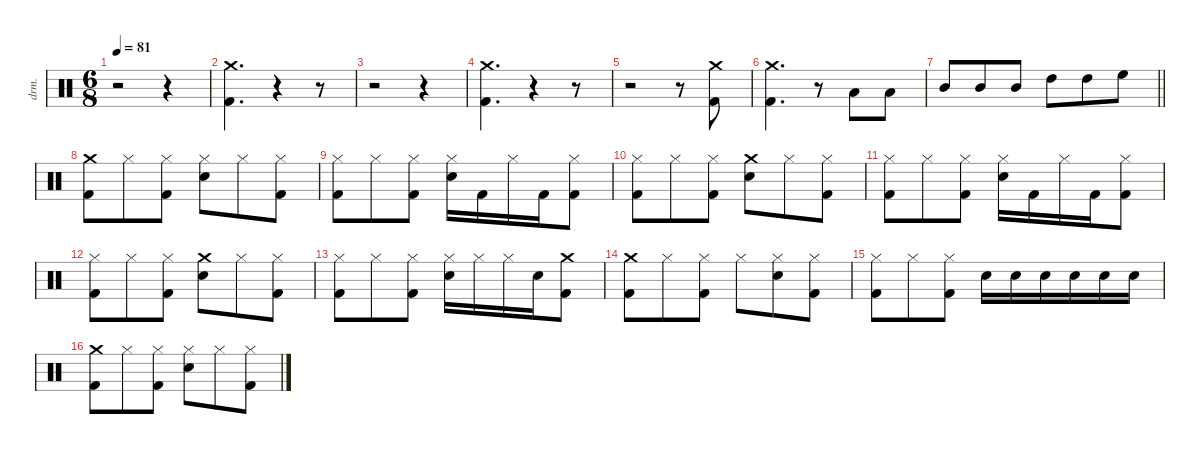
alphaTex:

\defaultSystemsLayout 4
\hideDynamics
\bracketExtendMode nobrackets
\otherSystemsTrackNameOrientation horizontal
\track ("Lars Ulrich (Drums)" "drm.") {instrument percussion}
\staff {score}
\articulation defaults
\ts (6 8)
\tempo 81
\clef neutral
\ks c
r.2{dy f beam Down} r.4{beam Down} |
("Kick (hit) 2" "Crash medium (hit)").4{d beam Down} r.4{beam Down} r.8{beam Down} |
r.2{beam Down} r.4{beam Down} |
("Crash medium (hit)" "Kick (hit) 2").4{d beam Down} r.4{beam Down} r.8{beam Down} |
r.2{beam Down} r.8{beam Down} ("Kick (hit) 2" "Crash medium (hit)").8{beam Down} |
("Kick (hit) 2" "Crash medium (hit)").4{d beam Down} r.8{beam Down} "Low Tom (hit)".8{beam Up} "Low Tom (hit)".8{beam Up} |
\barLineRight lightlight "Mid Tom (hit)".8{beam Up} "Mid Tom (hit)".8{beam Up} "Mid Tom (hit)".8{beam Up} "High Tom (hit)".8{beam Down} "High Tom (hit)".8{beam Down} "High Floor Tom (hit)".8{beam Down}
|
("Kick (hit) 2" "Crash medium (hit)").8{beam Down} "Hi-Hat (closed)".8{beam Down} ("Kick (hit) 2" "Hi-Hat (closed)").8{beam Down} ("Hi-Hat (closed)" "Snare (hit) 2").8{beam Down} "Hi-Hat (closed)".8{beam Down} ("Kick (hit) 2" "Hi-Hat (closed)").8{beam Down} |
("Hi-Hat (closed)" "Kick (hit) 2").8{beam Down} "Hi-Hat (closed)".8{beam Down} ("Kick (hit) 2" "Hi-Hat (closed)").8{beam Down} ("Hi-Hat (closed)" "Snare (hit) 2").16{beam Down} "Kick (hit) 2".16{beam Down} "Hi-Hat (closed)".16{beam Down} "Kick (hit) 2".16{beam Down} ("Kick (hit) 2" "Hi-Hat (closed)").8{beam Down} |
("Hi-Hat (closed)" "Kick (hit) 2").8{beam Down} "Hi-Hat (closed)".8{beam Down} ("Hi-Hat (closed)" "Kick (hit) 2").8{beam Down} ("Crash medium (hit)" "Snare (hit) 2").8{beam Down} "Hi-Hat (closed)".8{beam Down} ("Kick (hit) 2" "Hi-Hat (closed)").8{beam Down} |
("Hi-Hat (closed)" "Kick (hit) 2").8{beam Down} "Hi-Hat (closed)".8{beam Down} ("Kick (hit) 2" "Hi-Hat (closed)").8{beam Down} ("Hi-Hat (closed)" "Snare (hit) 2").16{beam Down} "Kick (hit) 2".16{beam Down} "Hi-Hat (closed)".16{beam Down} "Kick (hit) 2".16{beam Down} ("Kick (hit) 2" "Hi-Hat (closed)").8{beam Down} |
("Hi-Hat (closed)" "Kick (hit) 2").8{beam Down} "Hi-Hat (closed)".8{beam Down} ("Hi-Hat (closed)" "Kick (hit) 2").8{beam Down} ("Crash medium (hit)" "Snare (hit) 2").8{beam Down} "Hi-Hat (closed)".8{beam Down} ("Kick (hit) 2" "Hi-Hat (closed)").8{beam Down} |
("Kick (hit) 2" "Hi-Hat (closed)").8{beam Down} "Hi-Hat (closed)".8{beam Down} ("Kick (hit) 2" "Hi-Hat (closed)").8{beam Down} ("Hi-Hat (closed)" "Snare (hit) 2").16{beam Down} "Hi-Hat (closed)".16{beam Down} "Hi-Hat (closed)".16{beam Down} "Snare (hit) 2".16{beam Down} ("Crash medium (hit)" "Kick (hit) 2").8{beam Down} |
("Kick (hit) 2" "Crash medium (hit)").8{beam Down} "Hi-Hat (closed)".8{beam Down} ("Kick (hit) 2" "Hi-Hat (closed)").8{beam Down} "Hi-Hat (closed)".8{beam Down} ("Snare (hit) 2" "Hi-Hat (closed)").8{beam Down} ("Kick (hit) 2" "Hi-Hat (closed)").8{beam Down} |
("Hi-Hat (closed)" "Kick (hit) 2").8{beam Down} "Hi-Hat (closed)".8{beam Down} ("Hi-Hat (closed)" "Kick (hit) 2").8{beam Down} "Snare (hit) 2".16{beam Down} "Snare (hit) 2".16{beam Down} "Snare (hit) 2".16{beam Down} "Snare (hit) 2".16{beam Down} "Snare (hit) 2".16{beam Down} "Snare (hit) 2".16{beam Down} |
("Crash medium (hit)" "Kick (hit) 2").8{beam Down} "Hi-Hat (closed)".8{beam Down} ("Kick (hit) 2" "Hi-Hat (closed)").8{beam Down} ("Snare (hit) 2" "Hi-Hat (closed)").8{beam Down} "Hi-Hat (closed)".8{beam Down} ("Kick (hit) 2" "Hi-Hat (closed)").8{beam Down}
